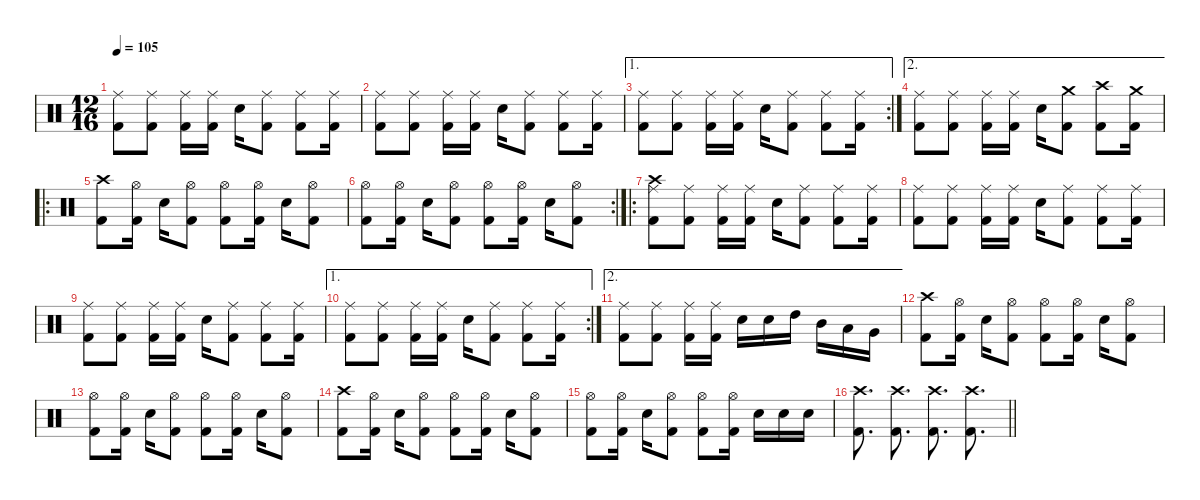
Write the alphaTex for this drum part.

\defaultSystemsLayout 4
\hideDynamics
\bracketExtendMode nobrackets
\singleTrackTrackNamePolicy hidden
\multiTrackTrackNamePolicy hidden
\firstSystemTrackNameMode fullname
\firstSystemTrackNameOrientation horizontal
\otherSystemsTrackNameOrientation horizontal
\track ("Drums" "drm.") {instrument percussion}
\staff {score}
\articulation defaults
\ts (12 16)
\tempo 105
\clef neutral
\ks c
("Ride (middle)" "Kick (hit) 2").8{dy f beam Down} ("Ride (middle)" "Kick (hit) 2").8{beam Down} ("Ride (middle)" "Kick (hit) 2").16{beam Down} ("Ride (middle)" "Kick (hit) 2").16{beam Down} "Snare (hit) 2".16{beam Down} ("Ride (middle)" "Kick (hit) 2").8{beam Down} ("Ride (middle)" "Kick (hit) 2").8{beam Down} ("Ride (middle)" "Kick (hit) 2").16{beam Down} |
("Ride (middle)" "Kick (hit) 2").8{beam Down} ("Ride (middle)" "Kick (hit) 2").8{beam Down} ("Ride (middle)" "Kick (hit) 2").16{beam Down} ("Ride (middle)" "Kick (hit) 2").16{beam Down} "Snare (hit) 2".16{beam Down} ("Ride (middle)" "Kick (hit) 2").8{beam Down} ("Ride (middle)" "Kick (hit) 2").8{beam Down} ("Ride (middle)" "Kick (hit) 2").16{beam Down} |
\ae 1
\rc 2
("Ride (middle)" "Kick (hit) 2").8{beam Down} ("Ride (middle)" "Kick (hit) 2").8{beam Down} ("Ride (middle)" "Kick (hit) 2").16{beam Down} ("Ride (middle)" "Kick (hit) 2").16{beam Down} "Snare (hit) 2".16{beam Down} ("Ride (middle)" "Kick (hit) 2").8{beam Down} ("Ride (middle)" "Kick (hit) 2").8{beam Down} ("Ride (middle)" "Kick (hit) 2").16{beam Down} |
\ae 2
("Ride (middle)" "Kick (hit) 2").8{beam Down} ("Ride (middle)" "Kick (hit) 2").8{beam Down} ("Ride (middle)" "Kick (hit) 2").16{beam Down} ("Ride (middle)" "Kick (hit) 2").16{beam Down} "Snare (hit) 2".16{beam Down} ("Crash medium (hit)" "Kick (hit) 2").8{beam Down} ("Crash high (hit)" "Kick (hit) 2").8{beam Down} ("Crash medium (hit)" "Kick (hit) 2").16{beam Down} |
\ro
("Crash high (hit)" "Kick (hit) 2").8{beam Down} ("Hi-Hat (open)" "Kick (hit) 2").16{dy mf beam Down} "Snare (hit) 2".16{dy f beam Down} ("Hi-Hat (open)" "Kick (hit) 2").8{dy mf beam Down} ("Hi-Hat (open)" "Kick (hit) 2").8{beam Down} ("Hi-Hat (open)" "Kick (hit) 2").16{beam Down} "Snare (hit) 2".16{dy f beam Down} ("Hi-Hat (open)" "Kick (hit) 2").8{dy mf beam Down} |
\rc 2
("Hi-Hat (open)" "Kick (hit) 2").8{beam Down} ("Hi-Hat (open)" "Kick (hit) 2").16{beam Down} "Snare (hit) 2".16{dy f beam Down} ("Hi-Hat (open)" "Kick (hit) 2").8{dy mf beam Down} ("Hi-Hat (open)" "Kick (hit) 2").8{beam Down} ("Hi-Hat (open)" "Kick (hit) 2").16{beam Down} "Snare (hit) 2".16{dy f beam Down} ("Hi-Hat (open)" "Kick (hit) 2").8{dy mf beam Down} |
\ro
("Ride (middle)" "Crash high (hit)" "Kick (hit) 2").8{dy f beam Down} ("Ride (middle)" "Kick (hit) 2").8{beam Down} ("Ride (middle)" "Kick (hit) 2").16{beam Down} ("Ride (middle)" "Kick (hit) 2").16{beam Down} "Snare (hit) 2".16{beam Down} ("Ride (middle)" "Kick (hit) 2").8{beam Down} ("Ride (middle)" "Kick (hit) 2").8{beam Down} ("Ride (middle)" "Kick (hit) 2").16{beam Down} |
("Ride (middle)" "Kick (hit) 2").8{beam Down} ("Ride (middle)" "Kick (hit) 2").8{beam Down} ("Ride (middle)" "Kick (hit) 2").16{beam Down} ("Ride (middle)" "Kick (hit) 2").16{beam Down} "Snare (hit) 2".16{beam Down} ("Ride (middle)" "Kick (hit) 2").8{beam Down} ("Ride (middle)" "Kick (hit) 2").8{beam Down} ("Ride (middle)" "Kick (hit) 2").16{beam Down} |
("Ride (middle)" "Kick (hit) 2").8{beam Down} ("Ride (middle)" "Kick (hit) 2").8{beam Down} ("Ride (middle)" "Kick (hit) 2").16{beam Down} ("Ride (middle)" "Kick (hit) 2").16{beam Down} "Snare (hit) 2".16{beam Down} ("Ride (middle)" "Kick (hit) 2").8{beam Down} ("Ride (middle)" "Kick (hit) 2").8{beam Down} ("Ride (middle)" "Kick (hit) 2").16{beam Down} |
\ae 1
\rc 2
("Ride (middle)" "Kick (hit) 2").8{beam Down} ("Ride (middle)" "Kick (hit) 2").8{beam Down} ("Ride (middle)" "Kick (hit) 2").16{beam Down} ("Ride (middle)" "Kick (hit) 2").16{beam Down} "Snare (hit) 2".16{beam Down} ("Ride (middle)" "Kick (hit) 2").8{beam Down} ("Ride (middle)" "Kick (hit) 2").8{beam Down} ("Ride (middle)" "Kick (hit) 2").16{beam Down} |
\ae 2
("Ride (middle)" "Kick (hit) 2").8{beam Down} ("Ride (middle)" "Kick (hit) 2").8{beam Down} ("Ride (middle)" "Kick (hit) 2").16{beam Down} ("Ride (middle)" "Kick (hit) 2").16{beam Down} "Snare (hit) 2".16{beam Down} "Snare (hit) 2".16{beam Down} "High Tom (hit)".16{beam Down} "Mid Tom (hit)".16{beam Down} "Low Tom (hit)".16{beam Down} "Very Low Tom (hit)".16{beam Down} |
("Crash high (hit)" "Kick (hit) 2").8{beam Down} ("Hi-Hat (open)" "Kick (hit) 2").16{dy mf beam Down} "Snare (hit) 2".16{dy f beam Down} ("Hi-Hat (open)" "Kick (hit) 2").8{dy mf beam Down} ("Hi-Hat (open)" "Kick (hit) 2").8{beam Down} ("Hi-Hat (open)" "Kick (hit) 2").16{beam Down} "Snare (hit) 2".16{dy f beam Down} ("Hi-Hat (open)" "Kick (hit) 2").8{dy mf beam Down} |
("Hi-Hat (open)" "Kick (hit) 2").8{beam Down} ("Hi-Hat (open)" "Kick (hit) 2").16{beam Down} "Snare (hit) 2".16{dy f beam Down} ("Hi-Hat (open)" "Kick (hit) 2").8{dy mf beam Down} ("Hi-Hat (open)" "Kick (hit) 2").8{beam Down} ("Hi-Hat (open)" "Kick (hit) 2").16{beam Down} "Snare (hit) 2".16{dy f beam Down} ("Hi-Hat (open)" "Kick (hit) 2").8{dy mf beam Down} |
("Crash high (hit)" "Kick (hit) 2").8{dy f beam Down} ("Hi-Hat (open)" "Kick (hit) 2").16{dy mf beam Down} "Snare (hit) 2".16{dy f beam Down} ("Hi-Hat (open)" "Kick (hit) 2").8{dy mf beam Down} ("Hi-Hat (open)" "Kick (hit) 2").8{beam Down} ("Hi-Hat (open)" "Kick (hit) 2").16{beam Down} "Snare (hit) 2".16{dy f beam Down} ("Hi-Hat (open)" "Kick (hit) 2").8{dy mf beam Down} |
("Hi-Hat (open)" "Kick (hit) 2").8{beam Down} ("Hi-Hat (open)" "Kick (hit) 2").16{beam Down} "Snare (hit) 2".16{dy f beam Down} ("Hi-Hat (open)" "Kick (hit) 2").8{dy mf beam Down} ("Hi-Hat (open)" "Kick (hit) 2").8{beam Down} ("Hi-Hat (open)" "Kick (hit) 2").16{beam Down} "Snare (hit) 2".16{dy f beam Down} "Snare (hit) 2".16{beam Down} "Snare (hit) 2".16{beam Down} |
\barLineRight lightlight
("Crash high (hit)" "Kick (hit) 2").8{d beam Down} ("Crash high (hit)" "Kick (hit) 2").8{d beam Down} ("Crash high (hit)" "Kick (hit) 2").8{d beam Down} ("Crash high (hit)" "Kick (hit) 2").8{d beam Down}
